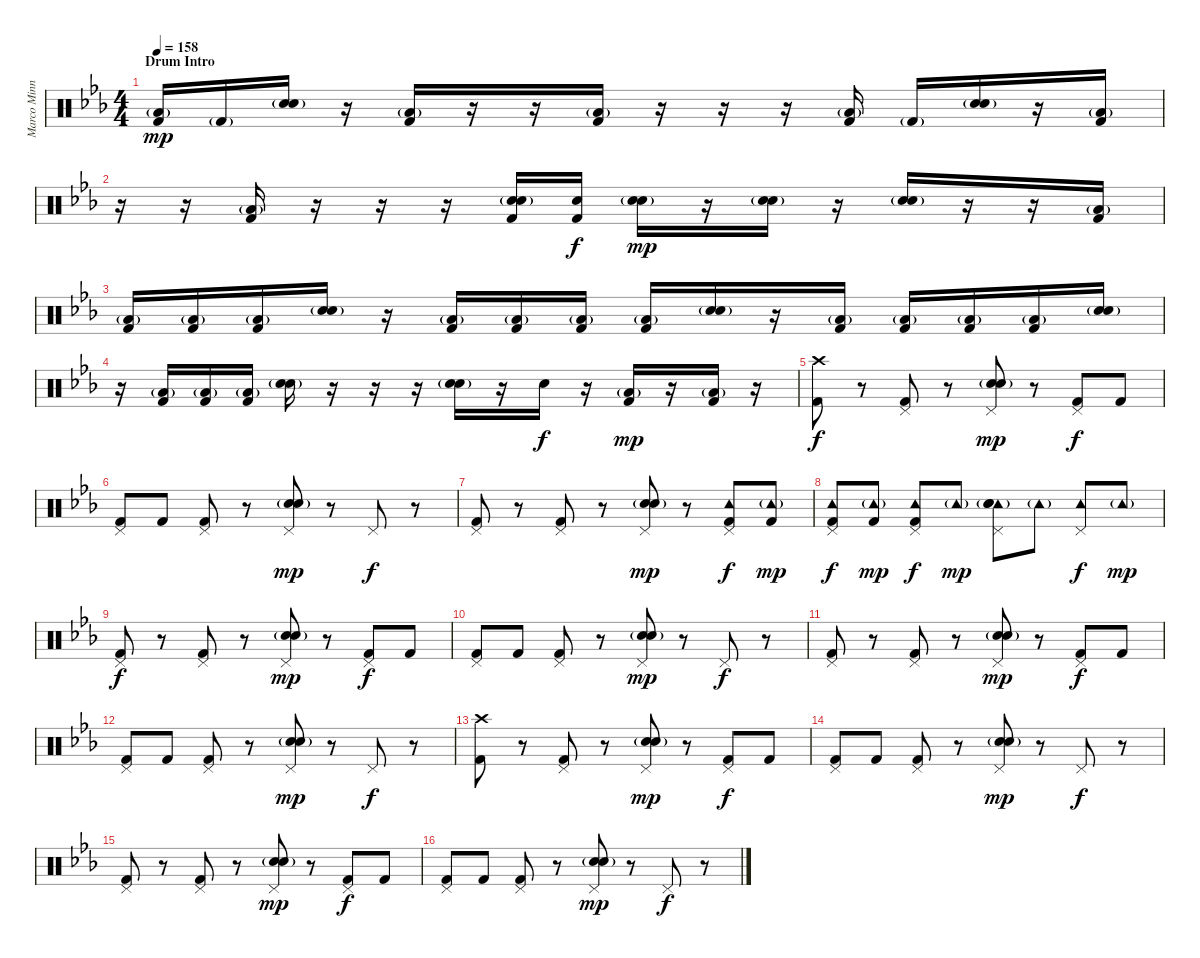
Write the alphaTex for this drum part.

\track ("Marco Minnemann (Drums)" "Marco Minn") {instrument percussion}
\staff {score}
\articulation defaults
\ts (4 4)
\section ("" "Drum Intro")
\tempo 158
\clef neutral
\ks eb
("Low Floor Tom (hit)"{g} "Kick (hit) 2").16{dy mp} "Kick (hit) 2"{g}.16 ("Snare (hit) 2"{g} "Electric Snare (hit)").16 r.16 ("Low Floor Tom (hit)"{g} "Kick (hit) 2").16 r.16 r.16 ("Low Floor Tom (hit)"{g} "Kick (hit) 2").16 r.16 r.16 r.16 ("Low Floor Tom (hit)"{g} "Kick (hit) 2").16 "Kick (hit) 2"{g}.16 ("Snare (hit) 2"{g} "Electric Snare (hit)").16 r.16 ("Low Floor Tom (hit)"{g} "Kick (hit) 2").16 |
r.16 r.16 ("Low Floor Tom (hit)"{g} "Kick (hit) 2").16 r.16 r.16 r.16 ("Snare (hit) 2"{g} "Electric Snare (hit)" "Kick (hit) 2").16 ("Electric Snare (hit)" "Kick (hit) 2").16{dy f} ("Snare (hit) 2"{g} "Electric Snare (hit)").16{dy mp} r.16 ("Snare (hit) 2"{g} "Electric Snare (hit)").16 r.16 ("Snare (hit) 2"{g} "Electric Snare (hit)").16 r.16 r.16 ("Low Floor Tom (hit)"{g} "Kick (hit) 2").16 |
("Low Floor Tom (hit)"{g} "Kick (hit) 2").16 ("Low Floor Tom (hit)"{g} "Kick (hit) 2").16 ("Low Floor Tom (hit)"{g} "Kick (hit) 2").16 ("Snare (hit) 2"{g} "Electric Snare (hit)").16 r.16 ("Low Floor Tom (hit)"{g} "Kick (hit) 2").16 ("Low Floor Tom (hit)"{g} "Kick (hit) 2").16 ("Low Floor Tom (hit)"{g} "Kick (hit) 2").16 ("Low Floor Tom (hit)"{g} "Kick (hit) 2").16 ("Snare (hit) 2"{g} "Electric Snare (hit)").16 r.16 ("Low Floor Tom (hit)"{g} "Kick (hit) 2").16 ("Low Floor Tom (hit)"{g} "Kick (hit) 2").16 ("Low Floor Tom (hit)"{g} "Kick (hit) 2").16 ("Low Floor Tom (hit)"{g} "Kick (hit) 2").16 ("Snare (hit) 2"{g} "Electric Snare (hit)").16 |
r.16 ("Low Floor Tom (hit)"{g} "Kick (hit) 2").16 ("Low Floor Tom (hit)"{g} "Kick (hit) 2").16 ("Low Floor Tom (hit)"{g} "Kick (hit) 2").16 ("Snare (hit) 2"{g} "Electric Snare (hit)").16 r.16 r.16 r.16 ("Snare (hit) 2"{g} "Electric Snare (hit)").16 r.16 "Electric Snare (hit)".16{dy f} r.16 ("Low Floor Tom (hit)"{g} "Kick (hit) 2").16{dy mp} r.16 ("Low Floor Tom (hit)"{g} "Kick (hit) 2").16 r.16 |
("Crash high (hit)" "Kick (hit) 2").8{dy f} r.8 ("Pedal Hi-Hat (hit)" "Kick (hit) 2").8 r.8 ("Pedal Hi-Hat (hit)" "Snare (hit) 2"{g} "Electric Snare (hit)").8{dy mp} r.8 ("Pedal Hi-Hat (hit)" "Kick (hit) 2").8{dy f} "Kick (hit) 2".8 |
("Pedal Hi-Hat (hit)" "Kick (hit) 2").8 "Kick (hit) 2".8 ("Pedal Hi-Hat (hit)" "Kick (hit) 2").8 r.8 ("Pedal Hi-Hat (hit)" "Snare (hit) 2"{g} "Electric Snare (hit)").8{dy mp} r.8 "Pedal Hi-Hat (hit)".8{dy f} r.8 |
("Pedal Hi-Hat (hit)" "Kick (hit) 2").8 r.8 ("Pedal Hi-Hat (hit)" "Kick (hit) 2").8 r.8 ("Pedal Hi-Hat (hit)" "Snare (hit) 2"{g} "Electric Snare (hit)").8{dy mp} r.8 ("Pedal Hi-Hat (hit)" "Tambourine (hit)" "Kick (hit) 2").8{dy f} ("Tambourine (hit)"{g} "Kick (hit) 2").8{dy mp} |
("Pedal Hi-Hat (hit)" "Tambourine (hit)" "Kick (hit) 2").8{dy f} ("Tambourine (hit)"{g} "Kick (hit) 2").8{dy mp} ("Pedal Hi-Hat (hit)" "Tambourine (hit)" "Kick (hit) 2").8{dy f} "Tambourine (hit)"{g}.8{dy mp} ("Pedal Hi-Hat (hit)" "Tambourine (hit)" "Snare (hit) 2"{g} "Electric Snare (hit)").8 "Tambourine (hit)"{g}.8 ("Pedal Hi-Hat (hit)" "Tambourine (hit)").8{dy f} "Tambourine (hit)"{g}.8{dy mp} |
("Pedal Hi-Hat (hit)" "Kick (hit) 2").8{dy f} r.8 ("Pedal Hi-Hat (hit)" "Kick (hit) 2").8 r.8 ("Pedal Hi-Hat (hit)" "Snare (hit) 2"{g} "Electric Snare (hit)").8{dy mp} r.8 ("Pedal Hi-Hat (hit)" "Kick (hit) 2").8{dy f} "Kick (hit) 2".8 |
("Pedal Hi-Hat (hit)" "Kick (hit) 2").8 "Kick (hit) 2".8 ("Pedal Hi-Hat (hit)" "Kick (hit) 2").8 r.8 ("Pedal Hi-Hat (hit)" "Snare (hit) 2"{g} "Electric Snare (hit)").8{dy mp} r.8 "Pedal Hi-Hat (hit)".8{dy f} r.8 |
("Pedal Hi-Hat (hit)" "Kick (hit) 2").8 r.8 ("Pedal Hi-Hat (hit)" "Kick (hit) 2").8 r.8 ("Pedal Hi-Hat (hit)" "Snare (hit) 2"{g} "Electric Snare (hit)").8{dy mp} r.8 ("Pedal Hi-Hat (hit)" "Kick (hit) 2").8{dy f} "Kick (hit) 2".8 |
("Pedal Hi-Hat (hit)" "Kick (hit) 2").8 "Kick (hit) 2".8 ("Pedal Hi-Hat (hit)" "Kick (hit) 2").8 r.8 ("Pedal Hi-Hat (hit)" "Snare (hit) 2"{g} "Electric Snare (hit)").8{dy mp} r.8 "Pedal Hi-Hat (hit)".8{dy f} r.8 |
("Crash high (hit)" "Kick (hit) 2").8 r.8 ("Pedal Hi-Hat (hit)" "Kick (hit) 2").8 r.8 ("Pedal Hi-Hat (hit)" "Snare (hit) 2"{g} "Electric Snare (hit)").8{dy mp} r.8 ("Pedal Hi-Hat (hit)" "Kick (hit) 2").8{dy f} "Kick (hit) 2".8 |
("Pedal Hi-Hat (hit)" "Kick (hit) 2").8 "Kick (hit) 2".8 ("Pedal Hi-Hat (hit)" "Kick (hit) 2").8 r.8 ("Pedal Hi-Hat (hit)" "Snare (hit) 2"{g} "Electric Snare (hit)").8{dy mp} r.8 "Pedal Hi-Hat (hit)".8{dy f} r.8 |
("Pedal Hi-Hat (hit)" "Kick (hit) 2").8 r.8 ("Pedal Hi-Hat (hit)" "Kick (hit) 2").8 r.8 ("Pedal Hi-Hat (hit)" "Snare (hit) 2"{g} "Electric Snare (hit)").8{dy mp} r.8 ("Pedal Hi-Hat (hit)" "Kick (hit) 2").8{dy f} "Kick (hit) 2".8 |
("Pedal Hi-Hat (hit)" "Kick (hit) 2").8 "Kick (hit) 2".8 ("Pedal Hi-Hat (hit)" "Kick (hit) 2").8 r.8 ("Pedal Hi-Hat (hit)" "Snare (hit) 2"{g} "Electric Snare (hit)").8{dy mp} r.8 "Pedal Hi-Hat (hit)".8{dy f} r.8
